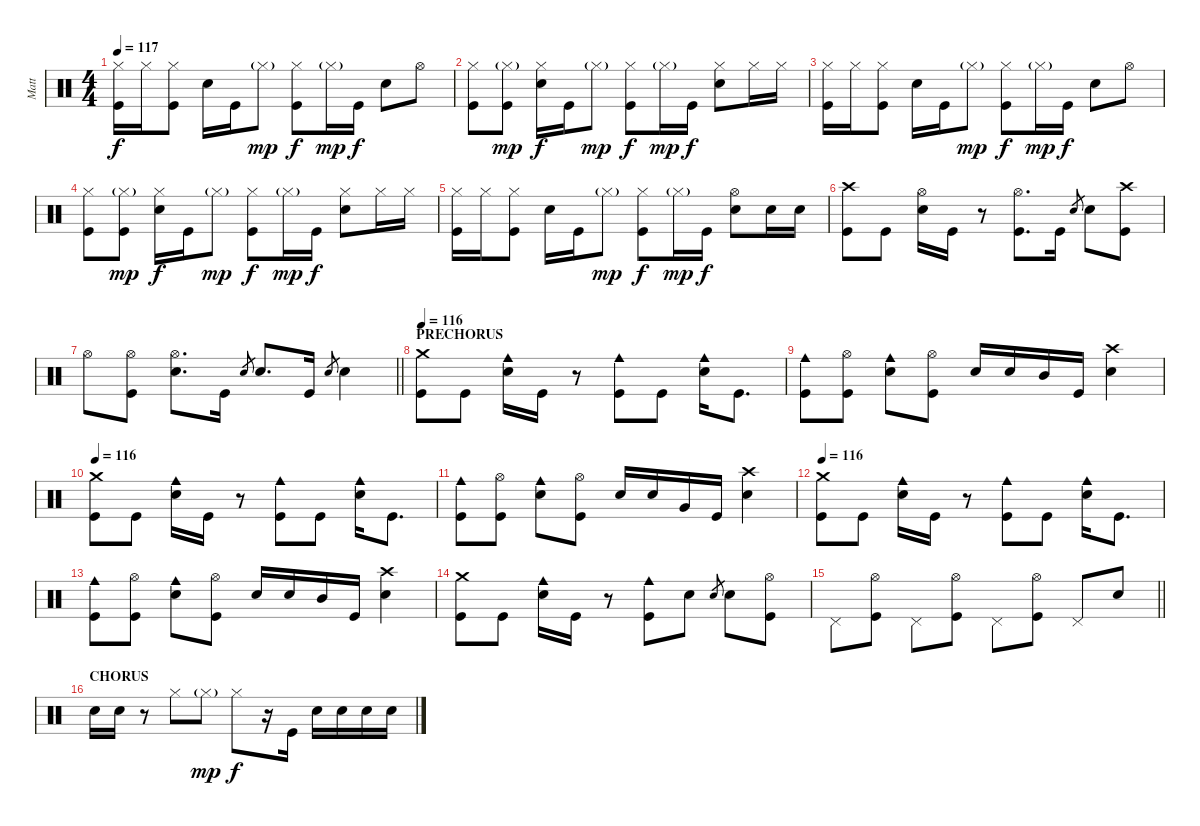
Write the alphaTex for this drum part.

\track ("Matt" "Matt") {instrument percussion}
\staff {score}
\articulation defaults
\ts (4 4)
\tempo 117
\clef neutral
\ks c
("Kick (hit)" "Hi-Hat (closed)").16{dy f} "Hi-Hat (closed)".16 ("Kick (hit)" "Hi-Hat (closed)").8 "Snare (hit) 2".16 "Kick (hit)".16 "Hi-Hat (closed)"{g}.8{dy mp} ("Kick (hit)" "Hi-Hat (closed)").8{dy f} "Hi-Hat (closed)"{g}.16{dy mp} "Kick (hit)".16{dy f} "Snare (hit) 2".8 "Hi-Hat (open)".8 |
("Kick (hit)" "Hi-Hat (closed)").8 ("Kick (hit)" "Hi-Hat (closed)"{g}).8{dy mp} ("Snare (hit) 2" "Hi-Hat (closed)").16{dy f} "Kick (hit)".16 "Hi-Hat (closed)"{g}.8{dy mp} ("Kick (hit)" "Hi-Hat (closed)").8{dy f} "Hi-Hat (closed)"{g}.16{dy mp} "Kick (hit)".16{dy f} ("Snare (hit) 2" "Hi-Hat (closed)").8 "Hi-Hat (closed)".16 "Hi-Hat (closed)".16 |
("Kick (hit)" "Hi-Hat (closed)").16 "Hi-Hat (closed)".16 ("Kick (hit)" "Hi-Hat (closed)").8 "Snare (hit) 2".16 "Kick (hit)".16 "Hi-Hat (closed)"{g}.8{dy mp} ("Kick (hit)" "Hi-Hat (closed)").8{dy f} "Hi-Hat (closed)"{g}.16{dy mp} "Kick (hit)".16{dy f} "Snare (hit) 2".8 "Hi-Hat (open)".8 |
("Kick (hit)" "Hi-Hat (closed)").8 ("Kick (hit)" "Hi-Hat (closed)"{g}).8{dy mp} ("Snare (hit) 2" "Hi-Hat (closed)").16{dy f} "Kick (hit)".16 "Hi-Hat (closed)"{g}.8{dy mp} ("Kick (hit)" "Hi-Hat (closed)").8{dy f} "Hi-Hat (closed)"{g}.16{dy mp} "Kick (hit)".16{dy f} ("Snare (hit) 2" "Hi-Hat (closed)").8 "Hi-Hat (closed)".16 "Hi-Hat (closed)".16 |
("Kick (hit)" "Hi-Hat (closed)").16 "Hi-Hat (closed)".16 ("Kick (hit)" "Hi-Hat (closed)").8 "Snare (hit) 2".16 "Kick (hit)".16 "Hi-Hat (closed)"{g}.8{dy mp} ("Kick (hit)" "Hi-Hat (closed)").8{dy f} "Hi-Hat (closed)"{g}.16{dy mp} "Kick (hit)".16{dy f} ("Snare (hit) 2" "Hi-Hat (open)").8 "Snare (hit) 2".16 "Snare (hit) 2".16 |
("Crash high (hit)" "Kick (hit)").8 "Kick (hit)".8 ("Snare (hit) 2" "Hi-Hat (open)").16 "Kick (hit)".16 r.8 ("Kick (hit)" "Hi-Hat (open)").8{d} "Kick (hit)".16 "Snare (hit) 2".8{gr} "Snare (hit) 2".8 ("Crash high (hit)" "Kick (hit)").8 |
\barLineRight lightlight "Hi-Hat (open)".8
("Kick (hit)" "Hi-Hat (open)").8 ("Snare (hit) 2" "Hi-Hat (open)").8{d} "Kick (hit)".16 "Snare (hit) 2".8{gr} "Snare (hit) 2".8{d} "Kick (hit)".16 "Snare (hit) 2".8{gr} "Snare (hit) 2".4 |
\section ("" "PRECHORUS")
\tempo 116
("Crash medium (hit)" "Kick (hit)").8 "Kick (hit)".8 ("Snare (hit) 2" "Cowbell medium (hit)").16 "Kick (hit)".16 r.8 ("Kick (hit)" "Cowbell medium (hit)").8 "Kick (hit)".8 ("Snare (hit) 2" "Cowbell medium (hit)").16 "Kick (hit)".8{d} |
("Kick (hit)" "Cowbell medium (hit)").8 ("Kick (hit)" "Hi-Hat (open)").8 ("Snare (hit) 2" "Cowbell medium (hit)").8 ("Kick (hit)" "Hi-Hat (open)").8 "Snare (hit) 2".16 "Snare (hit) 2".16 "Mid Tom (hit)".16 "Kick (hit)".16 ("Crash high (hit)" "Snare (hit) 2").4 |
\tempo 116
("Crash medium (hit)" "Kick (hit)").8 "Kick (hit)".8 ("Snare (hit) 2" "Cowbell medium (hit)").16 "Kick (hit)".16 r.8 ("Kick (hit)" "Cowbell medium (hit)").8 "Kick (hit)".8 ("Snare (hit) 2" "Cowbell medium (hit)").16 "Kick (hit)".8{d} |
("Kick (hit)" "Cowbell medium (hit)").8 ("Kick (hit)" "Hi-Hat (open)").8 ("Snare (hit) 2" "Cowbell medium (hit)").8 ("Kick (hit)" "Hi-Hat (open)").8 "Snare (hit) 2".16 "Snare (hit) 2".16 "Very Low Tom (hit)".16 "Kick (hit)".16 ("Crash high (hit)" "Snare (hit) 2").4 |
\tempo 116
("Crash medium (hit)" "Kick (hit)").8 "Kick (hit)".8 ("Snare (hit) 2" "Cowbell medium (hit)").16 "Kick (hit)".16 r.8 ("Kick (hit)" "Cowbell medium (hit)").8 "Kick (hit)".8 ("Snare (hit) 2" "Cowbell medium (hit)").16 "Kick (hit)".8{d} |
("Kick (hit)" "Cowbell medium (hit)").8 ("Kick (hit)" "Hi-Hat (open)").8 ("Snare (hit) 2" "Cowbell medium (hit)").8 ("Kick (hit)" "Hi-Hat (open)").8 "Snare (hit) 2".16 "Snare (hit) 2".16 "Mid Tom (hit)".16 "Kick (hit)".16 ("Crash high (hit)" "Snare (hit) 2").4 |
("Crash medium (hit)" "Kick (hit)").8 "Kick (hit)".8 ("Snare (hit) 2" "Cowbell medium (hit)").16 "Kick (hit)".16 r.8 ("Kick (hit)" "Cowbell medium (hit)").8 "Snare (hit) 2".8 "Snare (hit) 2".8{gr} "Snare (hit) 2".8 ("Kick (hit)" "Hi-Hat (open)").8 |
\barLineRight lightlight "Pedal Hi-Hat (hit)".8
("Kick (hit)" "Hi-Hat (open)").8 "Pedal Hi-Hat (hit)".8 ("Kick (hit)" "Hi-Hat (open)").8 "Pedal Hi-Hat (hit)".8 ("Kick (hit)" "Hi-Hat (open)").8 "Pedal Hi-Hat (hit)".8 "Snare (hit) 2".8 |
\section ("" "CHORUS")
"Snare (hit) 2".16 "Snare (hit) 2".16 r.8 "Hi-Hat (closed)".8 "Hi-Hat (closed)"{g}.8{dy mp} "Hi-Hat (closed)".8{dy f} r.16 "Kick (hit)".16 "Snare (hit) 2".16 "Snare (hit) 2".16 "Snare (hit) 2".16 "Snare (hit) 2".16
